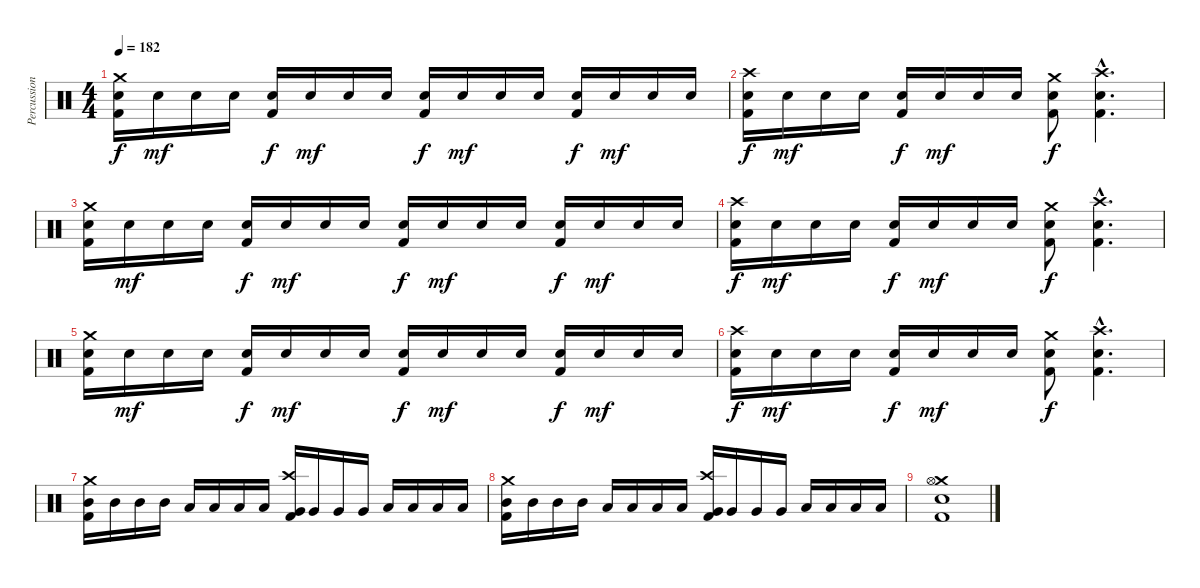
\track ("Percussion" "Percussion") {instrument percussion}
\staff {score}
\articulation defaults
\ts (4 4)
\tempo 182
\clef neutral
\ks c
("Crash medium (hit)" "Electric Snare (hit)" "Kick (hit) 2").16{dy f} "Electric Snare (hit)".16{dy mf} "Electric Snare (hit)".16 "Electric Snare (hit)".16 ("Electric Snare (hit)" "Kick (hit) 2").16{dy f} "Electric Snare (hit)".16{dy mf} "Electric Snare (hit)".16 "Electric Snare (hit)".16 ("Electric Snare (hit)" "Kick (hit) 2").16{dy f} "Electric Snare (hit)".16{dy mf} "Electric Snare (hit)".16 "Electric Snare (hit)".16 ("Electric Snare (hit)" "Kick (hit) 2").16{dy f} "Electric Snare (hit)".16{dy mf} "Electric Snare (hit)".16 "Electric Snare (hit)".16 |
("Crash high (hit)" "Electric Snare (hit)" "Kick (hit) 2").16{dy f} "Electric Snare (hit)".16{dy mf} "Electric Snare (hit)".16 "Electric Snare (hit)".16 ("Electric Snare (hit)" "Kick (hit) 2").16{dy f} "Electric Snare (hit)".16{dy mf} "Electric Snare (hit)".16 "Electric Snare (hit)".16 ("Crash medium (hit)" "Electric Snare (hit)" "Kick (hit) 2").8{dy f} ("Crash high (hit)"{hac} "Electric Snare (hit)"{hac} "Kick (hit) 2"{hac}).4{d} |
("Crash medium (hit)" "Electric Snare (hit)" "Kick (hit) 2").16 "Electric Snare (hit)".16{dy mf} "Electric Snare (hit)".16 "Electric Snare (hit)".16 ("Electric Snare (hit)" "Kick (hit) 2").16{dy f} "Electric Snare (hit)".16{dy mf} "Electric Snare (hit)".16 "Electric Snare (hit)".16 ("Electric Snare (hit)" "Kick (hit) 2").16{dy f} "Electric Snare (hit)".16{dy mf} "Electric Snare (hit)".16 "Electric Snare (hit)".16 ("Electric Snare (hit)" "Kick (hit) 2").16{dy f} "Electric Snare (hit)".16{dy mf} "Electric Snare (hit)".16 "Electric Snare (hit)".16 |
("Crash high (hit)" "Electric Snare (hit)" "Kick (hit) 2").16{dy f} "Electric Snare (hit)".16{dy mf} "Electric Snare (hit)".16 "Electric Snare (hit)".16 ("Electric Snare (hit)" "Kick (hit) 2").16{dy f} "Electric Snare (hit)".16{dy mf} "Electric Snare (hit)".16 "Electric Snare (hit)".16 ("Crash medium (hit)" "Electric Snare (hit)" "Kick (hit) 2").8{dy f} ("Crash high (hit)"{hac} "Electric Snare (hit)"{hac} "Kick (hit) 2"{hac}).4{d} |
("Crash medium (hit)" "Electric Snare (hit)" "Kick (hit) 2").16 "Electric Snare (hit)".16{dy mf} "Electric Snare (hit)".16 "Electric Snare (hit)".16 ("Electric Snare (hit)" "Kick (hit) 2").16{dy f} "Electric Snare (hit)".16{dy mf} "Electric Snare (hit)".16 "Electric Snare (hit)".16 ("Electric Snare (hit)" "Kick (hit) 2").16{dy f} "Electric Snare (hit)".16{dy mf} "Electric Snare (hit)".16 "Electric Snare (hit)".16 ("Electric Snare (hit)" "Kick (hit) 2").16{dy f} "Electric Snare (hit)".16{dy mf} "Electric Snare (hit)".16 "Electric Snare (hit)".16 |
("Crash high (hit)" "Electric Snare (hit)" "Kick (hit) 2").16{dy f} "Electric Snare (hit)".16{dy mf} "Electric Snare (hit)".16 "Electric Snare (hit)".16 ("Electric Snare (hit)" "Kick (hit) 2").16{dy f} "Electric Snare (hit)".16{dy mf} "Electric Snare (hit)".16 "Electric Snare (hit)".16 ("Crash medium (hit)" "Electric Snare (hit)" "Kick (hit) 2").8{dy f} ("Crash high (hit)"{hac} "Electric Snare (hit)"{hac} "Kick (hit) 2"{hac}).4{d} |
("Crash medium (hit)" "Mid Tom (hit)" "Kick (hit) 2").16 "Mid Tom (hit)".16 "Mid Tom (hit)".16 "Mid Tom (hit)".16 "Low Tom (hit)".16 "Low Tom (hit)".16 "Low Tom (hit)".16 "Low Tom (hit)".16 ("Crash high (hit)" "Very Low Tom (hit)" "Kick (hit) 2").16 "Very Low Tom (hit)".16 "Very Low Tom (hit)".16 "Very Low Tom (hit)".16 "Low Floor Tom (hit)".16 "Low Floor Tom (hit)".16 "Low Floor Tom (hit)".16 "Low Floor Tom (hit)".16 |
("Crash medium (hit)" "Mid Tom (hit)" "Kick (hit) 2").16 "Mid Tom (hit)".16 "Mid Tom (hit)".16 "Mid Tom (hit)".16 "Low Tom (hit)".16 "Low Tom (hit)".16 "Low Tom (hit)".16 "Low Tom (hit)".16 ("Crash high (hit)" "Very Low Tom (hit)" "Kick (hit) 2").16 "Very Low Tom (hit)".16 "Very Low Tom (hit)".16 "Very Low Tom (hit)".16 "Low Floor Tom (hit)".16 "Low Floor Tom (hit)".16 "Low Floor Tom (hit)".16 "Low Floor Tom (hit)".16 |
("Crash medium (hit)" "Hi-Hat (open)" "Electric Snare (hit)" "Kick (hit) 2").1
